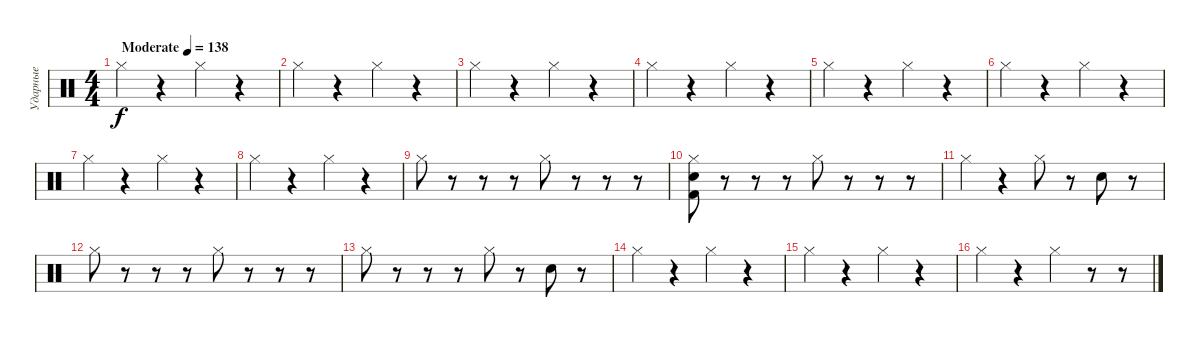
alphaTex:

\track ("Ударные" "Ударные") {instrument percussion}
\staff {score}
\articulation defaults
\ts (4 4)
\tempo (138 "Moderate")
\clef neutral
\ks c "Hi-Hat (closed)".4{dy f}
r.4 "Hi-Hat (closed)".4 r.4 |
"Hi-Hat (closed)".4 r.4 "Hi-Hat (closed)".4 r.4 |
"Hi-Hat (closed)".4 r.4 "Hi-Hat (closed)".4 r.4 |
"Hi-Hat (closed)".4 r.4 "Hi-Hat (closed)".4 r.4 |
"Hi-Hat (closed)".4 r.4 "Hi-Hat (closed)".4 r.4 |
"Hi-Hat (closed)".4 r.4 "Hi-Hat (closed)".4 r.4 |
"Hi-Hat (closed)".4 r.4 "Hi-Hat (closed)".4 r.4 |
"Hi-Hat (closed)".4 r.4 "Hi-Hat (closed)".4 r.4 |
"Hi-Hat (closed)".8 r.8 r.8 r.8 "Hi-Hat (closed)".8 r.8 r.8 r.8 |
("Hi-Hat (closed)" "Electric Snare (hit)" "Kick (hit) 2").8 r.8 r.8 r.8 "Hi-Hat (closed)".8 r.8 r.8 r.8 |
"Hi-Hat (closed)".4 r.4 "Hi-Hat (closed)".8 r.8 "Electric Snare (hit)".8 r.8 |
"Hi-Hat (closed)".8 r.8 r.8 r.8 "Hi-Hat (closed)".8 r.8 r.8 r.8 |
"Hi-Hat (closed)".8 r.8 r.8 r.8 "Hi-Hat (closed)".8 r.8 "Electric Snare (hit)".8 r.8 |
"Hi-Hat (closed)".4 r.4 "Hi-Hat (closed)".4 r.4 |
"Hi-Hat (closed)".4 r.4 "Hi-Hat (closed)".4 r.4 |
"Hi-Hat (closed)".4 r.4 "Hi-Hat (closed)".4 r.8 r.8
